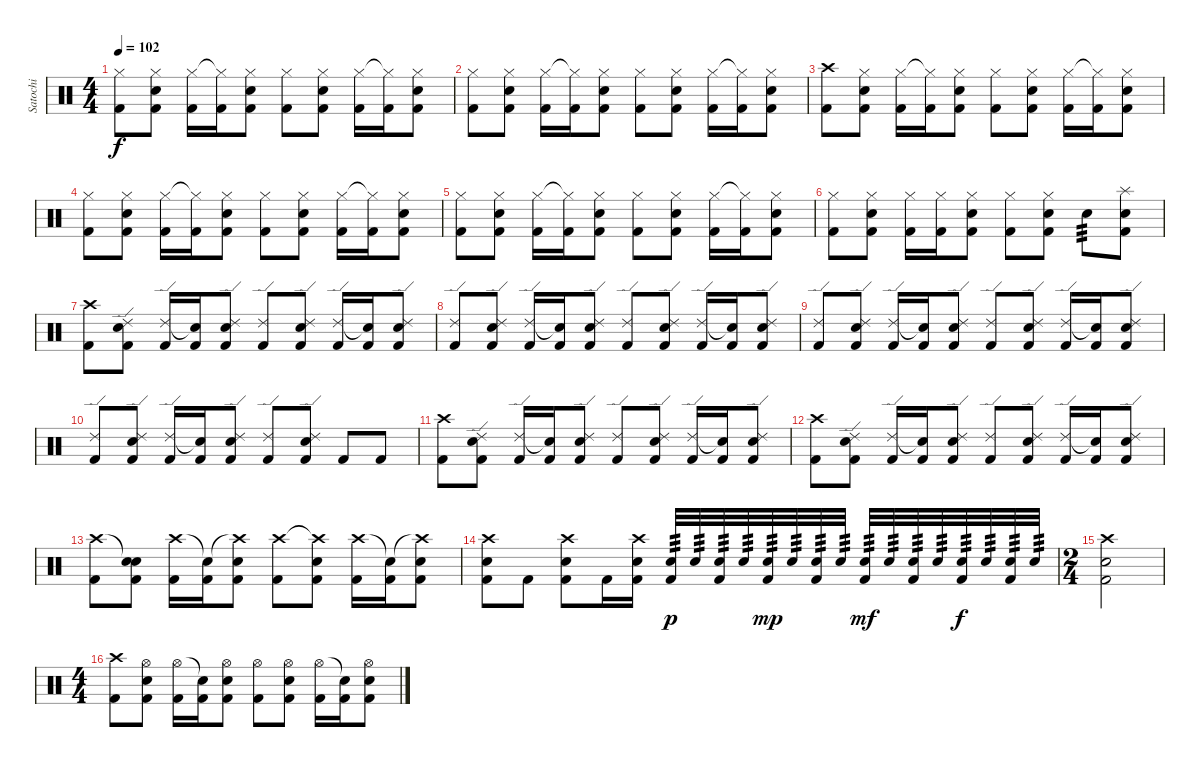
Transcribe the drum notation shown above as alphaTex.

\track ("Satochi" "Satochi") {instrument percussion}
\staff {score}
\articulation defaults
\ts (4 4)
\tempo 102
\clef neutral
\ks c
("Hi-Hat (closed)" "Kick (hit) 2").8{dy f} ("Hi-Hat (closed)" "Electric Snare (hit)" "Kick (hit) 2").8 ("Hi-Hat (closed)" "Kick (hit) 2").16 ("Hi-Hat (closed)"{t} "Kick (hit) 2").16 ("Hi-Hat (closed)" "Electric Snare (hit)" "Kick (hit) 2").8 ("Hi-Hat (closed)" "Kick (hit) 2").8 ("Hi-Hat (closed)" "Electric Snare (hit)" "Kick (hit) 2").8 ("Hi-Hat (closed)" "Kick (hit) 2").16 ("Hi-Hat (closed)"{t} "Kick (hit) 2").16 ("Hi-Hat (closed)" "Electric Snare (hit)" "Kick (hit) 2").8 |
("Hi-Hat (closed)" "Kick (hit) 2").8 ("Hi-Hat (closed)" "Electric Snare (hit)" "Kick (hit) 2").8 ("Hi-Hat (closed)" "Kick (hit) 2").16 ("Hi-Hat (closed)"{t} "Kick (hit) 2").16 ("Hi-Hat (closed)" "Electric Snare (hit)" "Kick (hit) 2").8 ("Hi-Hat (closed)" "Kick (hit) 2").8 ("Hi-Hat (closed)" "Electric Snare (hit)" "Kick (hit) 2").8 ("Hi-Hat (closed)" "Kick (hit) 2").16 ("Hi-Hat (closed)"{t} "Kick (hit) 2").16 ("Hi-Hat (closed)" "Electric Snare (hit)" "Kick (hit) 2").8 |
("Crash high (hit)" "Kick (hit) 2").8 ("Hi-Hat (closed)" "Electric Snare (hit)" "Kick (hit) 2").8 ("Hi-Hat (closed)" "Kick (hit) 2").16 ("Hi-Hat (closed)"{t} "Kick (hit) 2").16 ("Hi-Hat (closed)" "Electric Snare (hit)" "Kick (hit) 2").8 ("Hi-Hat (closed)" "Kick (hit) 2").8 ("Hi-Hat (closed)" "Electric Snare (hit)" "Kick (hit) 2").8 ("Hi-Hat (closed)" "Kick (hit) 2").16 ("Hi-Hat (closed)"{t} "Kick (hit) 2").16 ("Hi-Hat (closed)" "Electric Snare (hit)" "Kick (hit) 2").8 |
("Hi-Hat (closed)" "Kick (hit) 2").8 ("Hi-Hat (closed)" "Electric Snare (hit)" "Kick (hit) 2").8 ("Hi-Hat (closed)" "Kick (hit) 2").16 ("Hi-Hat (closed)"{t} "Kick (hit) 2").16 ("Hi-Hat (closed)" "Electric Snare (hit)" "Kick (hit) 2").8 ("Hi-Hat (closed)" "Kick (hit) 2").8 ("Hi-Hat (closed)" "Electric Snare (hit)" "Kick (hit) 2").8 ("Hi-Hat (closed)" "Kick (hit) 2").16 ("Hi-Hat (closed)"{t} "Kick (hit) 2").16 ("Hi-Hat (closed)" "Electric Snare (hit)" "Kick (hit) 2").8 |
("Hi-Hat (closed)" "Kick (hit) 2").8 ("Hi-Hat (closed)" "Electric Snare (hit)" "Kick (hit) 2").8 ("Hi-Hat (closed)" "Kick (hit) 2").16 ("Hi-Hat (closed)"{t} "Kick (hit) 2").16 ("Hi-Hat (closed)" "Electric Snare (hit)" "Kick (hit) 2").8 ("Hi-Hat (closed)" "Kick (hit) 2").8 ("Hi-Hat (closed)" "Electric Snare (hit)" "Kick (hit) 2").8 ("Hi-Hat (closed)" "Kick (hit) 2").16 ("Hi-Hat (closed)"{t} "Kick (hit) 2").16 ("Hi-Hat (closed)" "Electric Snare (hit)" "Kick (hit) 2").8 |
("Hi-Hat (closed)" "Kick (hit) 2").8 ("Hi-Hat (closed)" "Electric Snare (hit)" "Kick (hit) 2").8 ("Hi-Hat (closed)" "Kick (hit) 2").16 ("Hi-Hat (closed)" "Kick (hit) 2").16 ("Hi-Hat (closed)" "Electric Snare (hit)" "Kick (hit) 2").8 ("Hi-Hat (closed)" "Kick (hit) 2").8 ("Hi-Hat (closed)" "Electric Snare (hit)" "Kick (hit) 2").8 "Electric Snare (hit)".8{tp 3} ("Splash (hit)" "Electric Snare (hit)" "Kick (hit) 2").8 |
("Crash high (hit)" "Kick (hit) 2").8 ("Ride (edge) 2" "Electric Snare (hit)" "Kick (hit) 2").8 ("Ride (edge) 2" "Kick (hit) 2").16 ("Snare (hit)"{t} "Kick (hit) 2").16 ("Ride (edge) 2" "Electric Snare (hit)" "Kick (hit) 2").8 ("Ride (edge) 2" "Kick (hit) 2").8 ("Ride (edge) 2" "Electric Snare (hit)" "Kick (hit) 2").8 ("Ride (edge) 2" "Kick (hit) 2").16 ("Snare (hit)"{t} "Kick (hit) 2").16 ("Ride (edge) 2" "Electric Snare (hit)" "Kick (hit) 2").8 |
("Ride (edge) 2" "Kick (hit) 2").8 ("Ride (edge) 2" "Electric Snare (hit)" "Kick (hit) 2").8 ("Ride (edge) 2" "Kick (hit) 2").16 ("Snare (hit)"{t} "Kick (hit) 2").16 ("Ride (edge) 2" "Electric Snare (hit)" "Kick (hit) 2").8 ("Ride (edge) 2" "Kick (hit) 2").8 ("Ride (edge) 2" "Electric Snare (hit)" "Kick (hit) 2").8 ("Ride (edge) 2" "Kick (hit) 2").16 ("Snare (hit)"{t} "Kick (hit) 2").16 ("Ride (edge) 2" "Electric Snare (hit)" "Kick (hit) 2").8 |
("Ride (edge) 2" "Kick (hit) 2").8 ("Ride (edge) 2" "Electric Snare (hit)" "Kick (hit) 2").8 ("Ride (edge) 2" "Kick (hit) 2").16 ("Snare (hit)"{t} "Kick (hit) 2").16 ("Ride (edge) 2" "Electric Snare (hit)" "Kick (hit) 2").8 ("Ride (edge) 2" "Kick (hit) 2").8 ("Ride (edge) 2" "Electric Snare (hit)" "Kick (hit) 2").8 ("Ride (edge) 2" "Kick (hit) 2").16 ("Snare (hit)"{t} "Kick (hit) 2").16 ("Ride (edge) 2" "Electric Snare (hit)" "Kick (hit) 2").8 |
("Ride (edge) 2" "Kick (hit) 2").8 ("Ride (edge) 2" "Electric Snare (hit)" "Kick (hit) 2").8 ("Ride (edge) 2" "Kick (hit) 2").16 ("Snare (hit)"{t} "Kick (hit) 2").16 ("Ride (edge) 2" "Electric Snare (hit)" "Kick (hit) 2").8 ("Ride (edge) 2" "Kick (hit) 2").8 ("Ride (edge) 2" "Electric Snare (hit)" "Kick (hit) 2").8 "Kick (hit) 2".8 "Kick (hit) 2".8 |
("Crash high (hit)" "Kick (hit) 2").8 ("Ride (edge) 2" "Electric Snare (hit)" "Kick (hit) 2").8 ("Ride (edge) 2" "Kick (hit) 2").16 ("Snare (hit)"{t} "Kick (hit) 2").16 ("Ride (edge) 2" "Electric Snare (hit)" "Kick (hit) 2").8 ("Ride (edge) 2" "Kick (hit) 2").8 ("Ride (edge) 2" "Electric Snare (hit)" "Kick (hit) 2").8 ("Ride (edge) 2" "Kick (hit) 2").16 ("Snare (hit)"{t} "Kick (hit) 2").16 ("Ride (edge) 2" "Electric Snare (hit)" "Kick (hit) 2").8 |
("Crash high (hit)" "Kick (hit) 2").8 ("Ride (edge) 2" "Electric Snare (hit)" "Kick (hit) 2").8 ("Ride (edge) 2" "Kick (hit) 2").16 ("Snare (hit)"{t} "Kick (hit) 2").16 ("Ride (edge) 2" "Electric Snare (hit)" "Kick (hit) 2").8 ("Ride (edge) 2" "Kick (hit) 2").8 ("Ride (edge) 2" "Electric Snare (hit)" "Kick (hit) 2").8 ("Ride (edge) 2" "Kick (hit) 2").16 ("Snare (hit)"{t} "Kick (hit) 2").16 ("Ride (edge) 2" "Electric Snare (hit)" "Kick (hit) 2").8 |
("Crash high (hit)" "Kick (hit) 2").8 ("Snare (hit)"{t} "Electric Snare (hit)" "Kick (hit) 2").8 ("Crash high (hit)" "Kick (hit) 2").16 ("Snare (hit)"{t} "Kick (hit) 2").16 ("Crash high (hit)"{t} "Electric Snare (hit)" "Kick (hit) 2").8 ("Crash high (hit)" "Kick (hit) 2").8 ("Crash high (hit)"{t} "Electric Snare (hit)" "Kick (hit) 2").8 ("Crash high (hit)" "Kick (hit) 2").16 ("Snare (hit)"{t} "Kick (hit) 2").16 ("Crash high (hit)"{t} "Electric Snare (hit)" "Kick (hit) 2").8 |
("Crash high (hit)" "Electric Snare (hit)" "Kick (hit) 2").8 "Kick (hit) 2".8 ("Crash high (hit)" "Electric Snare (hit)" "Kick (hit) 2").8 "Kick (hit) 2".16 ("Crash high (hit)" "Electric Snare (hit)" "Kick (hit) 2").16 ("Electric Snare (hit)" "Kick (hit) 2").32{tp 3 dy p} "Electric Snare (hit)".32{tp 3} ("Electric Snare (hit)" "Kick (hit) 2").32{tp 3} "Electric Snare (hit)".32{tp 3} ("Electric Snare (hit)" "Kick (hit) 2").32{tp 3 dy mp} "Electric Snare (hit)".32{tp 3} ("Electric Snare (hit)" "Kick (hit) 2").32{tp 3} "Electric Snare (hit)".32{tp 3} ("Electric Snare (hit)" "Kick (hit) 2").32{tp 3 dy mf} "Electric Snare (hit)".32{tp 3} ("Electric Snare (hit)" "Kick (hit) 2").32{tp 3} "Electric Snare (hit)".32{tp 3} ("Electric Snare (hit)" "Kick (hit) 2").32{tp 3 dy f} "Electric Snare (hit)".32{tp 3} ("Electric Snare (hit)" "Kick (hit) 2").32{tp 3} "Electric Snare (hit)".32{tp 3} |
\ts (2 4)
("Crash high (hit)" "Electric Snare (hit)" "Kick (hit) 2").2 |
\ts (4 4)
("Crash high (hit)" "Kick (hit) 2").8 ("Hi-Hat (open)" "Electric Snare (hit)" "Kick (hit) 2").8 ("Hi-Hat (open)" "Kick (hit) 2").16 ("Snare (hit)"{t} "Kick (hit) 2").16 ("Hi-Hat (open)" "Electric Snare (hit)" "Kick (hit) 2").8 ("Hi-Hat (open)" "Kick (hit) 2").8 ("Hi-Hat (open)" "Electric Snare (hit)" "Kick (hit) 2").8 ("Hi-Hat (open)" "Kick (hit) 2").16 ("Snare (hit)"{t} "Kick (hit) 2").16 ("Hi-Hat (open)" "Electric Snare (hit)" "Kick (hit) 2").8
